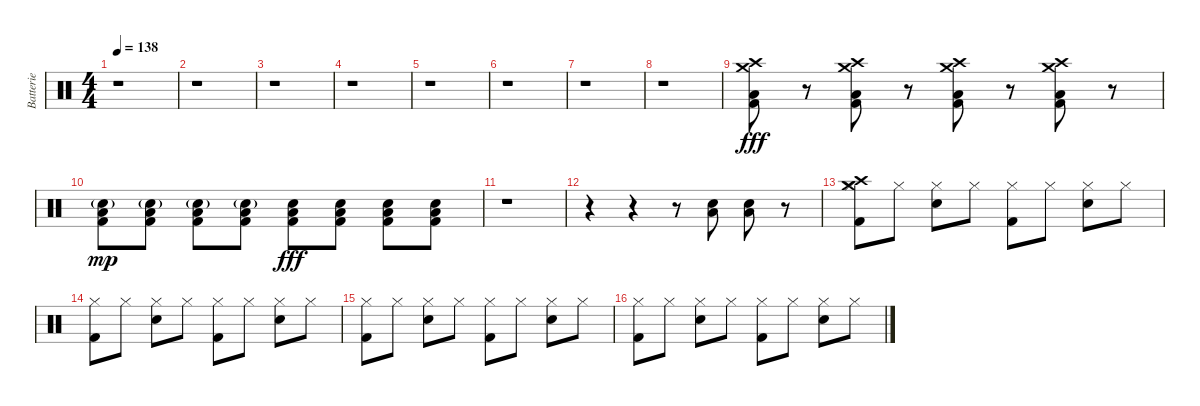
\track ("Batterie" "Batterie") {instrument percussion}
\staff {score}
\articulation defaults
\ts (4 4)
\tempo 138
\clef neutral
\ks c
r.1{dy f} |
r.1 |
r.1 |
r.1 |
r.1 |
r.1 |
r.1 |
r.1 |
("Crash high (hit)" "Crash medium (hit)" "Low Floor Tom (hit)" "Kick (hit) 2").8{dy fff} r.8 ("Crash high (hit)" "Crash medium (hit)" "Low Floor Tom (hit)" "Kick (hit) 2").8 r.8 ("Crash high (hit)" "Crash medium (hit)" "Low Floor Tom (hit)" "Kick (hit) 2").8 r.8 ("Crash high (hit)" "Crash medium (hit)" "Low Floor Tom (hit)" "Kick (hit) 2").8 r.8 |
("Low Floor Tom (hit)" "Electric Snare (hit)"{g} "Kick (hit) 2").8{dy mp} ("Low Floor Tom (hit)" "Electric Snare (hit)"{g} "Kick (hit) 2").8 ("Low Floor Tom (hit)" "Electric Snare (hit)"{g} "Kick (hit) 2").8 ("Low Floor Tom (hit)" "Electric Snare (hit)"{g} "Kick (hit) 2").8 ("Low Floor Tom (hit)" "Electric Snare (hit)" "Kick (hit) 2").8{dy fff} ("Low Floor Tom (hit)" "Electric Snare (hit)" "Kick (hit) 2").8 ("Low Floor Tom (hit)" "Electric Snare (hit)" "Kick (hit) 2").8 ("Low Floor Tom (hit)" "Electric Snare (hit)" "Kick (hit) 2").8 |
r.1 |
r.4 r.4 r.8 ("Low Floor Tom (hit)" "Electric Snare (hit)").8 ("Low Floor Tom (hit)" "Electric Snare (hit)").8 r.8 |
("Crash high (hit)" "Crash medium (hit)" "Hi-Hat (closed)" "Kick (hit) 2").8 "Hi-Hat (closed)".8 ("Hi-Hat (closed)" "Electric Snare (hit)").8 "Hi-Hat (closed)".8 ("Hi-Hat (closed)" "Kick (hit) 2").8 "Hi-Hat (closed)".8 ("Hi-Hat (closed)" "Electric Snare (hit)").8 "Hi-Hat (closed)".8 |
("Hi-Hat (closed)" "Kick (hit) 2").8 "Hi-Hat (closed)".8 ("Hi-Hat (closed)" "Electric Snare (hit)").8 "Hi-Hat (closed)".8 ("Hi-Hat (closed)" "Kick (hit) 2").8 "Hi-Hat (closed)".8 ("Hi-Hat (closed)" "Electric Snare (hit)").8 "Hi-Hat (closed)".8 |
("Hi-Hat (closed)" "Kick (hit) 2").8 "Hi-Hat (closed)".8 ("Hi-Hat (closed)" "Electric Snare (hit)").8 "Hi-Hat (closed)".8 ("Hi-Hat (closed)" "Kick (hit) 2").8 "Hi-Hat (closed)".8 ("Hi-Hat (closed)" "Electric Snare (hit)").8 "Hi-Hat (closed)".8 |
("Hi-Hat (closed)" "Kick (hit) 2").8 "Hi-Hat (closed)".8 ("Hi-Hat (closed)" "Electric Snare (hit)").8 "Hi-Hat (closed)".8 ("Hi-Hat (closed)" "Kick (hit) 2").8 "Hi-Hat (closed)".8 ("Hi-Hat (closed)" "Electric Snare (hit)").8 "Hi-Hat (closed)".8
